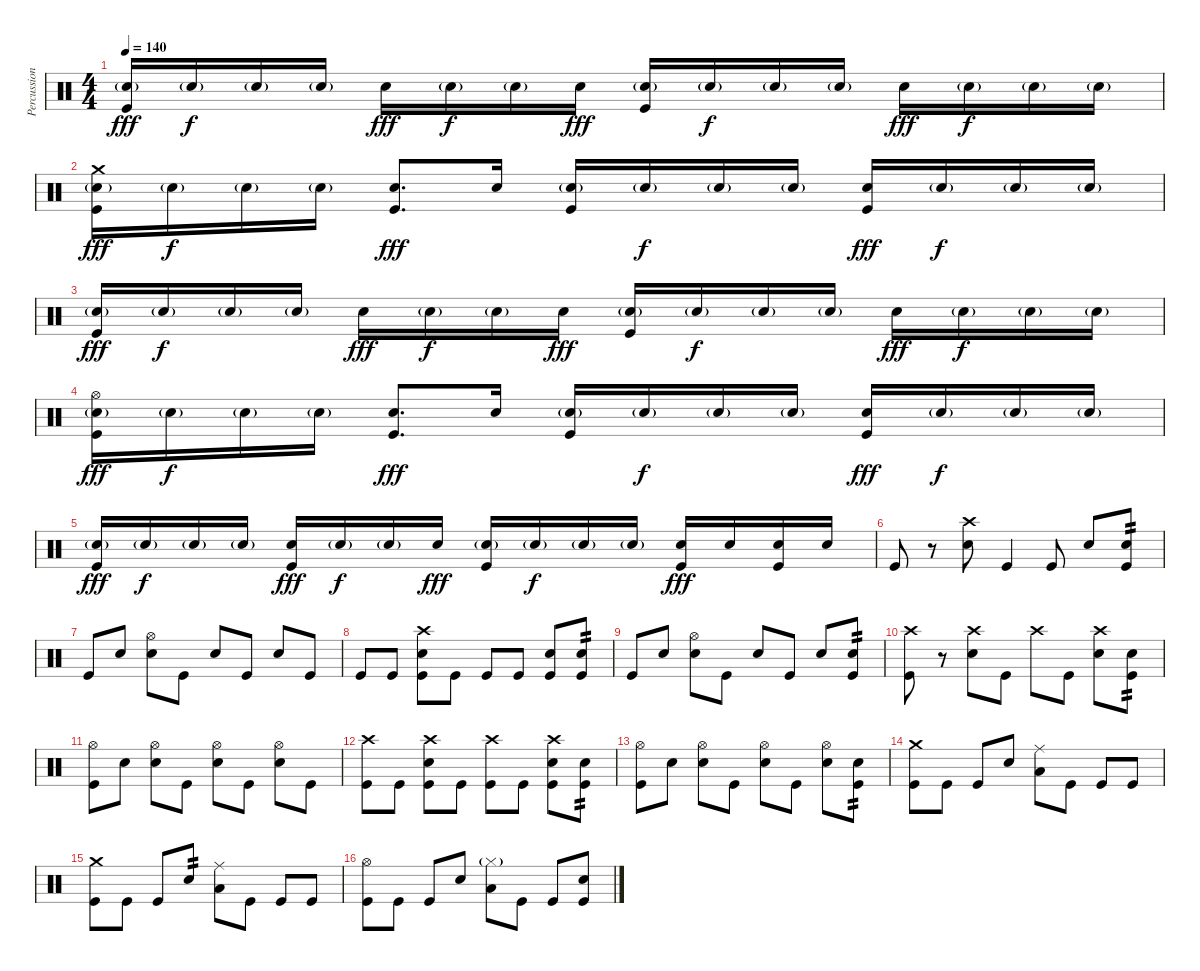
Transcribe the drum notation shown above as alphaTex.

\track ("Percussion" "Percussion") {instrument percussion}
\staff {score}
\articulation defaults
\ts (4 4)
\tempo 140
\clef neutral
\ks c
("Snare (hit) 2"{g} "Kick (hit)").16{dy fff} "Snare (hit) 2"{g}.16{dy f} "Snare (hit) 2"{g}.16 "Snare (hit) 2"{g}.16 "Snare (hit) 2".16{dy fff} "Snare (hit) 2"{g}.16{dy f} "Snare (hit) 2"{g}.16 "Snare (hit) 2".16{dy fff} ("Snare (hit) 2"{g} "Kick (hit)").16 "Snare (hit) 2"{g}.16{dy f} "Snare (hit) 2"{g}.16 "Snare (hit) 2"{g}.16 "Snare (hit) 2".16{dy fff} "Snare (hit) 2"{g}.16{dy f} "Snare (hit) 2"{g}.16 "Snare (hit) 2"{g}.16 |
("Crash medium (hit)" "Snare (hit) 2"{g} "Kick (hit)").16{dy fff} "Snare (hit) 2"{g}.16{dy f} "Snare (hit) 2"{g}.16 "Snare (hit) 2"{g}.16 ("Snare (hit) 2" "Kick (hit)").8{d dy fff} "Snare (hit) 2".16 ("Snare (hit) 2"{g} "Kick (hit)").16 "Snare (hit) 2"{g}.16{dy f} "Snare (hit) 2"{g}.16 "Snare (hit) 2"{g}.16 ("Snare (hit) 2" "Kick (hit)").16{dy fff} "Snare (hit) 2"{g}.16{dy f} "Snare (hit) 2"{g}.16 "Snare (hit) 2"{g}.16 |
("Snare (hit) 2"{g} "Kick (hit)").16{dy fff} "Snare (hit) 2"{g}.16{dy f} "Snare (hit) 2"{g}.16 "Snare (hit) 2"{g}.16 "Snare (hit) 2".16{dy fff} "Snare (hit) 2"{g}.16{dy f} "Snare (hit) 2"{g}.16 "Snare (hit) 2".16{dy fff} ("Snare (hit) 2"{g} "Kick (hit)").16 "Snare (hit) 2"{g}.16{dy f} "Snare (hit) 2"{g}.16 "Snare (hit) 2"{g}.16 "Snare (hit) 2".16{dy fff} "Snare (hit) 2"{g}.16{dy f} "Snare (hit) 2"{g}.16 "Snare (hit) 2"{g}.16 |
("Hi-Hat (open)" "Snare (hit) 2"{g} "Kick (hit)").16{dy fff} "Snare (hit) 2"{g}.16{dy f} "Snare (hit) 2"{g}.16 "Snare (hit) 2"{g}.16 ("Snare (hit) 2" "Kick (hit)").8{d dy fff} "Snare (hit) 2".16 ("Snare (hit) 2"{g} "Kick (hit)").16 "Snare (hit) 2"{g}.16{dy f} "Snare (hit) 2"{g}.16 "Snare (hit) 2"{g}.16 ("Snare (hit) 2" "Kick (hit)").16{dy fff} "Snare (hit) 2"{g}.16{dy f} "Snare (hit) 2"{g}.16 "Snare (hit) 2"{g}.16 |
("Snare (hit) 2"{g} "Kick (hit)").16{dy fff} "Snare (hit) 2"{g}.16{dy f} "Snare (hit) 2"{g}.16 "Snare (hit) 2"{g}.16 ("Snare (hit) 2" "Kick (hit)").16{dy fff} "Snare (hit) 2"{g}.16{dy f} "Snare (hit) 2"{g}.16 "Snare (hit) 2".16{dy fff} ("Snare (hit) 2"{g} "Kick (hit)").16 "Snare (hit) 2"{g}.16{dy f} "Snare (hit) 2"{g}.16 "Snare (hit) 2"{g}.16 ("Snare (hit) 2" "Kick (hit)").16{dy fff} "Snare (hit) 2".16 ("Snare (hit) 2" "Kick (hit)").16 "Snare (hit) 2".16 |
"Kick (hit)".8 r.8 ("Crash high (hit)" "Snare (hit) 2").8 "Kick (hit)".4 "Kick (hit)".8 "Snare (hit) 2".8 ("Snare (hit) 2" "Kick (hit)").8{tp 2} |
"Kick (hit)".8 "Snare (hit) 2".8 ("Hi-Hat (open)" "Snare (hit) 2").8 "Kick (hit)".8 "Snare (hit) 2".8 "Kick (hit)".8 "Snare (hit) 2".8 "Kick (hit)".8 |
"Kick (hit)".8 "Kick (hit)".8 ("Crash high (hit)" "Snare (hit) 2" "Kick (hit)").8 "Kick (hit)".8 "Kick (hit)".8 "Kick (hit)".8 ("Snare (hit) 2" "Kick (hit)").8 ("Snare (hit) 2" "Kick (hit)").8{tp 2} |
"Kick (hit)".8 "Snare (hit) 2".8 ("Hi-Hat (open)" "Snare (hit) 2").8 "Kick (hit)".8 "Snare (hit) 2".8 "Kick (hit)".8 "Snare (hit) 2".8 ("Snare (hit) 2" "Kick (hit)").8{tp 2} |
("Crash high (hit)" "Kick (hit)").8 r.8 ("Crash high (hit)" "Snare (hit) 2").8 "Kick (hit)".8 "Crash high (hit)".8 "Kick (hit)".8 ("Crash high (hit)" "Snare (hit) 2").8 ("Snare (hit) 2" "Kick (hit)").8{tp 2} |
("Hi-Hat (open)" "Kick (hit)").8 "Snare (hit) 2".8 ("Hi-Hat (open)" "Snare (hit) 2").8 "Kick (hit)".8 ("Hi-Hat (open)" "Snare (hit) 2").8 "Kick (hit)".8 ("Hi-Hat (open)" "Snare (hit) 2").8 "Kick (hit)".8 |
("Crash high (hit)" "Kick (hit)").8 "Kick (hit)".8 ("Crash high (hit)" "Snare (hit) 2" "Kick (hit)").8 "Kick (hit)".8 ("Crash high (hit)" "Kick (hit)").8 "Kick (hit)".8 ("Crash high (hit)" "Snare (hit) 2" "Kick (hit)").8 ("Snare (hit) 2" "Kick (hit)").8{tp 2} |
("Hi-Hat (open)" "Kick (hit)").8 "Snare (hit) 2".8 ("Hi-Hat (open)" "Snare (hit) 2").8 "Kick (hit)".8 ("Hi-Hat (open)" "Snare (hit) 2").8 "Kick (hit)".8 ("Hi-Hat (open)" "Snare (hit) 2").8 ("Snare (hit) 2" "Kick (hit)").8{tp 2} |
("Crash medium (hit)" "Kick (hit)").8 "Kick (hit)".8 "Kick (hit)".8 "Snare (hit) 2".8 ("Ride (middle)" "Low Floor Tom (hit)").8 "Kick (hit)".8 "Kick (hit)".8 "Kick (hit)".8 |
("Crash medium (hit)" "Kick (hit)").8 "Kick (hit)".8 "Kick (hit)".8 "Snare (hit) 2".8{tp 2} ("Ride (middle)" "Low Floor Tom (hit)").8 "Kick (hit)".8 "Kick (hit)".8 "Kick (hit)".8 |
("Hi-Hat (open)" "Kick (hit)").8 "Kick (hit)".8 "Kick (hit)".8 "Snare (hit) 2".8 ("Hi-Hat (closed)"{g} "Low Floor Tom (hit)").8 "Kick (hit)".8 "Kick (hit)".8 ("Snare (hit) 2" "Kick (hit)").8
